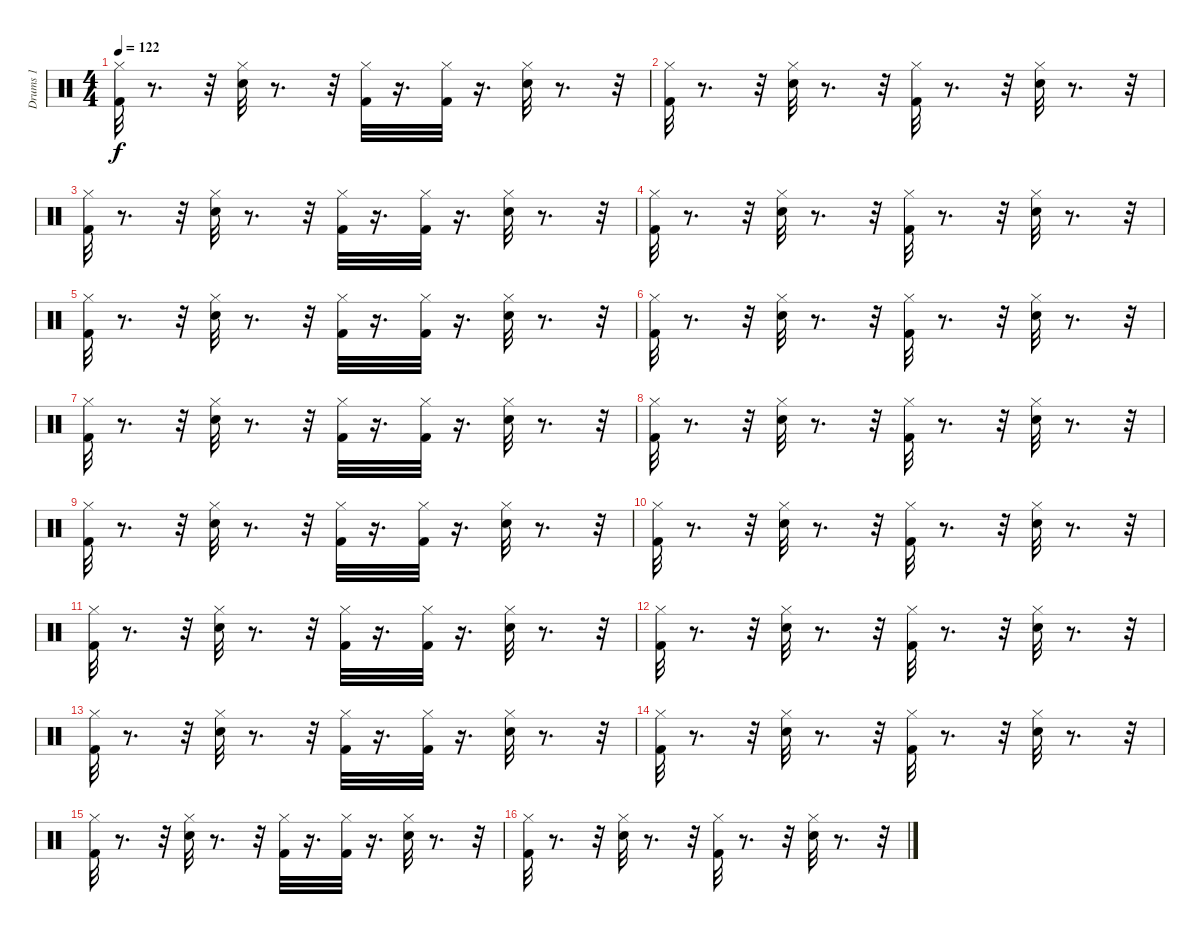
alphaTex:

\track ("Drums 1" "Drums 1") {instrument percussion}
\staff {score}
\articulation defaults
\ts (4 4)
\tempo 122
\clef neutral
\ks c
("Hi-Hat (closed)" "Kick (hit) 2").32{dy f} r.8{d} r.32 ("Hi-Hat (closed)" "Snare (hit) 2").32 r.8{d} r.32 ("Hi-Hat (closed)" "Kick (hit) 2").32 r.16{d} ("Hi-Hat (closed)" "Kick (hit) 2").32 r.16{d} ("Hi-Hat (closed)" "Snare (hit) 2").32 r.8{d} r.32 |
("Hi-Hat (closed)" "Kick (hit) 2").32 r.8{d} r.32 ("Hi-Hat (closed)" "Snare (hit) 2").32 r.8{d} r.32 ("Hi-Hat (closed)" "Kick (hit) 2").32 r.8{d} r.32 ("Hi-Hat (closed)" "Snare (hit) 2").32 r.8{d} r.32 |
("Hi-Hat (closed)" "Kick (hit) 2").32 r.8{d} r.32 ("Hi-Hat (closed)" "Snare (hit) 2").32 r.8{d} r.32 ("Hi-Hat (closed)" "Kick (hit) 2").32 r.16{d} ("Hi-Hat (closed)" "Kick (hit) 2").32 r.16{d} ("Hi-Hat (closed)" "Snare (hit) 2").32 r.8{d} r.32 |
("Hi-Hat (closed)" "Kick (hit) 2").32 r.8{d} r.32 ("Hi-Hat (closed)" "Snare (hit) 2").32 r.8{d} r.32 ("Hi-Hat (closed)" "Kick (hit) 2").32 r.8{d} r.32 ("Hi-Hat (closed)" "Snare (hit) 2").32 r.8{d} r.32 |
("Hi-Hat (closed)" "Kick (hit) 2").32 r.8{d} r.32 ("Hi-Hat (closed)" "Snare (hit) 2").32 r.8{d} r.32 ("Hi-Hat (closed)" "Kick (hit) 2").32 r.16{d} ("Hi-Hat (closed)" "Kick (hit) 2").32 r.16{d} ("Hi-Hat (closed)" "Snare (hit) 2").32 r.8{d} r.32 |
("Hi-Hat (closed)" "Kick (hit) 2").32 r.8{d} r.32 ("Hi-Hat (closed)" "Snare (hit) 2").32 r.8{d} r.32 ("Hi-Hat (closed)" "Kick (hit) 2").32 r.8{d} r.32 ("Hi-Hat (closed)" "Snare (hit) 2").32 r.8{d} r.32 |
("Hi-Hat (closed)" "Kick (hit) 2").32 r.8{d} r.32 ("Hi-Hat (closed)" "Snare (hit) 2").32 r.8{d} r.32 ("Hi-Hat (closed)" "Kick (hit) 2").32 r.16{d} ("Hi-Hat (closed)" "Kick (hit) 2").32 r.16{d} ("Hi-Hat (closed)" "Snare (hit) 2").32 r.8{d} r.32 |
("Hi-Hat (closed)" "Kick (hit) 2").32 r.8{d} r.32 ("Hi-Hat (closed)" "Snare (hit) 2").32 r.8{d} r.32 ("Hi-Hat (closed)" "Kick (hit) 2").32 r.8{d} r.32 ("Hi-Hat (closed)" "Snare (hit) 2").32 r.8{d} r.32 |
("Hi-Hat (closed)" "Kick (hit) 2").32 r.8{d} r.32 ("Hi-Hat (closed)" "Snare (hit) 2").32 r.8{d} r.32 ("Hi-Hat (closed)" "Kick (hit) 2").32 r.16{d} ("Hi-Hat (closed)" "Kick (hit) 2").32 r.16{d} ("Hi-Hat (closed)" "Snare (hit) 2").32 r.8{d} r.32 |
("Hi-Hat (closed)" "Kick (hit) 2").32 r.8{d} r.32 ("Hi-Hat (closed)" "Snare (hit) 2").32 r.8{d} r.32 ("Hi-Hat (closed)" "Kick (hit) 2").32 r.8{d} r.32 ("Hi-Hat (closed)" "Snare (hit) 2").32 r.8{d} r.32 |
("Hi-Hat (closed)" "Kick (hit) 2").32 r.8{d} r.32 ("Hi-Hat (closed)" "Snare (hit) 2").32 r.8{d} r.32 ("Hi-Hat (closed)" "Kick (hit) 2").32 r.16{d} ("Hi-Hat (closed)" "Kick (hit) 2").32 r.16{d} ("Hi-Hat (closed)" "Snare (hit) 2").32 r.8{d} r.32 |
("Hi-Hat (closed)" "Kick (hit) 2").32 r.8{d} r.32 ("Hi-Hat (closed)" "Snare (hit) 2").32 r.8{d} r.32 ("Hi-Hat (closed)" "Kick (hit) 2").32 r.8{d} r.32 ("Hi-Hat (closed)" "Snare (hit) 2").32 r.8{d} r.32 |
("Hi-Hat (closed)" "Kick (hit) 2").32 r.8{d} r.32 ("Hi-Hat (closed)" "Snare (hit) 2").32 r.8{d} r.32 ("Hi-Hat (closed)" "Kick (hit) 2").32 r.16{d} ("Hi-Hat (closed)" "Kick (hit) 2").32 r.16{d} ("Hi-Hat (closed)" "Snare (hit) 2").32 r.8{d} r.32 |
("Hi-Hat (closed)" "Kick (hit) 2").32 r.8{d} r.32 ("Hi-Hat (closed)" "Snare (hit) 2").32 r.8{d} r.32 ("Hi-Hat (closed)" "Kick (hit) 2").32 r.8{d} r.32 ("Hi-Hat (closed)" "Snare (hit) 2").32 r.8{d} r.32 |
("Hi-Hat (closed)" "Kick (hit) 2").32 r.8{d} r.32 ("Hi-Hat (closed)" "Snare (hit) 2").32 r.8{d} r.32 ("Hi-Hat (closed)" "Kick (hit) 2").32 r.16{d} ("Hi-Hat (closed)" "Kick (hit) 2").32 r.16{d} ("Hi-Hat (closed)" "Snare (hit) 2").32 r.8{d} r.32 |
("Hi-Hat (closed)" "Kick (hit) 2").32 r.8{d} r.32 ("Hi-Hat (closed)" "Snare (hit) 2").32 r.8{d} r.32 ("Hi-Hat (closed)" "Kick (hit) 2").32 r.8{d} r.32 ("Hi-Hat (closed)" "Snare (hit) 2").32 r.8{d} r.32
